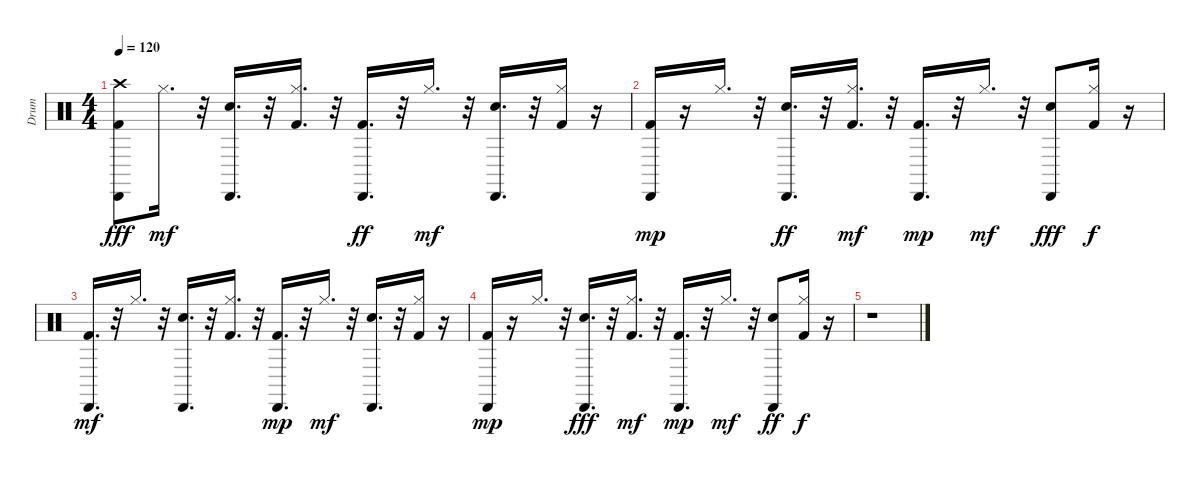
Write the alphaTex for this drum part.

\track ("Drum" "Drum") {instrument percussion}
\staff {score}
\articulation defaults
\ts (4 4)
\tempo 120
\clef neutral
\ks c
("Kick (hit) 2" "Cabasa (hit)" "Crash high (hit)").8{dy fff volume 15} "Hi-Hat (closed)".16{d dy mf volume 14} r.32 ("Snare (hit) 2" "Cabasa (hit)").16{d volume 13} r.32 ("Kick (hit) 2" "Hi-Hat (closed)").16{d volume 13} r.32 ("Cabasa (hit)" "Kick (hit) 2").16{d dy ff volume 11} r.32 "Hi-Hat (closed)".16{d dy mf volume 10} r.32 ("Snare (hit) 2" "Cabasa (hit)").16{d volume 10} r.32 ("Hi-Hat (closed)" "Kick (hit) 2").16{volume 10} r.16 |
("Kick (hit) 2" "Cabasa (hit)").16{dy mp volume 9} r.16 "Hi-Hat (closed)".16{d volume 8} r.32 ("Snare (hit) 2" "Cabasa (hit)").16{d dy ff volume 8} r.32 ("Kick (hit) 2" "Hi-Hat (closed)").16{d dy mf volume 7} r.32 ("Kick (hit) 2" "Cabasa (hit)").16{d dy mp volume 7} r.32 "Hi-Hat (closed)".16{d dy mf volume 6} r.32 ("Cabasa (hit)" "Snare (hit) 2").8{dy fff volume 5} ("Hi-Hat (closed)" "Kick (hit) 2").16{dy f volume 4} r.16 |
("Kick (hit) 2" "Cabasa (hit)").16{d dy mf volume 4} r.32 "Hi-Hat (closed)".16{d volume 4} r.32 ("Snare (hit) 2" "Cabasa (hit)").16{d volume 3} r.32 ("Kick (hit) 2" "Hi-Hat (closed)").16{d volume 3} r.32 ("Kick (hit) 2" "Cabasa (hit)").16{d dy mp volume 3} r.32 "Hi-Hat (closed)".16{d dy mf} r.32 ("Snare (hit) 2" "Cabasa (hit)").16{d volume 2} r.32 ("Kick (hit) 2" "Hi-Hat (closed)").16{volume 2} r.16 |
("Kick (hit) 2" "Cabasa (hit)").16{dy mp volume 2} r.16 "Hi-Hat (closed)".16{d volume 2} r.32 ("Snare (hit) 2" "Cabasa (hit)").16{d dy fff volume 1} r.32 ("Hi-Hat (closed)" "Kick (hit) 2").16{d dy mf volume 1} r.32 ("Kick (hit) 2" "Cabasa (hit)").16{d dy mp volume 0} r.32 "Hi-Hat (closed)".16{d dy mf volume 0} r.32 ("Cabasa (hit)" "Snare (hit) 2").8{dy ff} ("Hi-Hat (closed)" "Kick (hit) 2").16{dy f} r.16 |
r.1
